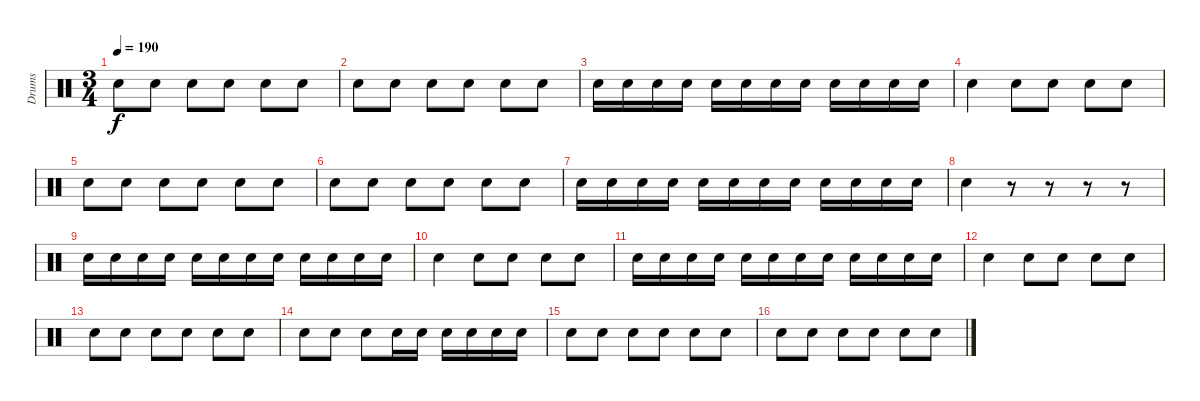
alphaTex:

\track ("Drums" "Drums") {instrument percussion}
\staff {score}
\articulation defaults
\ts (3 4)
\tempo 190
\clef neutral
\ks c "Snare (hit) 2".8{dy f} "Snare (hit) 2".8 "Snare (hit) 2".8 "Snare (hit) 2".8 "Snare (hit) 2".8 "Snare (hit) 2".8
|
"Snare (hit) 2".8 "Snare (hit) 2".8 "Snare (hit) 2".8 "Snare (hit) 2".8 "Snare (hit) 2".8 "Snare (hit) 2".8 |
"Snare (hit) 2".16 "Snare (hit) 2".16 "Snare (hit) 2".16 "Snare (hit) 2".16 "Snare (hit) 2".16 "Snare (hit) 2".16 "Snare (hit) 2".16 "Snare (hit) 2".16 "Snare (hit) 2".16 "Snare (hit) 2".16 "Snare (hit) 2".16 "Snare (hit) 2".16 |
"Snare (hit) 2".4 "Snare (hit) 2".8 "Snare (hit) 2".8 "Snare (hit) 2".8 "Snare (hit) 2".8 |
"Snare (hit) 2".8 "Snare (hit) 2".8 "Snare (hit) 2".8 "Snare (hit) 2".8 "Snare (hit) 2".8 "Snare (hit) 2".8 |
"Snare (hit) 2".8 "Snare (hit) 2".8 "Snare (hit) 2".8 "Snare (hit) 2".8 "Snare (hit) 2".8 "Snare (hit) 2".8 |
"Snare (hit) 2".16 "Snare (hit) 2".16 "Snare (hit) 2".16 "Snare (hit) 2".16 "Snare (hit) 2".16 "Snare (hit) 2".16 "Snare (hit) 2".16 "Snare (hit) 2".16 "Snare (hit) 2".16 "Snare (hit) 2".16 "Snare (hit) 2".16 "Snare (hit) 2".16 |
"Snare (hit) 2".4 r.8 r.8 r.8 r.8 |
"Snare (hit) 2".16 "Snare (hit) 2".16 "Snare (hit) 2".16 "Snare (hit) 2".16 "Snare (hit) 2".16 "Snare (hit) 2".16 "Snare (hit) 2".16 "Snare (hit) 2".16 "Snare (hit) 2".16 "Snare (hit) 2".16 "Snare (hit) 2".16 "Snare (hit) 2".16 |
"Snare (hit) 2".4 "Snare (hit) 2".8 "Snare (hit) 2".8 "Snare (hit) 2".8 "Snare (hit) 2".8 |
"Snare (hit) 2".16 "Snare (hit) 2".16 "Snare (hit) 2".16 "Snare (hit) 2".16 "Snare (hit) 2".16 "Snare (hit) 2".16 "Snare (hit) 2".16 "Snare (hit) 2".16 "Snare (hit) 2".16 "Snare (hit) 2".16 "Snare (hit) 2".16 "Snare (hit) 2".16 |
"Snare (hit) 2".4 "Snare (hit) 2".8 "Snare (hit) 2".8 "Snare (hit) 2".8 "Snare (hit) 2".8 |
"Snare (hit) 2".8 "Snare (hit) 2".8 "Snare (hit) 2".8 "Snare (hit) 2".8 "Snare (hit) 2".8 "Snare (hit) 2".8 |
"Snare (hit) 2".8 "Snare (hit) 2".8 "Snare (hit) 2".8 "Snare (hit) 2".16 "Snare (hit) 2".16 "Snare (hit) 2".16 "Snare (hit) 2".16 "Snare (hit) 2".16 "Snare (hit) 2".16 |
"Snare (hit) 2".8 "Snare (hit) 2".8 "Snare (hit) 2".8 "Snare (hit) 2".8 "Snare (hit) 2".8 "Snare (hit) 2".8 |
"Snare (hit) 2".8 "Snare (hit) 2".8 "Snare (hit) 2".8 "Electric Snare (hit)".8 "Electric Snare (hit)".8 "Electric Snare (hit)".8
